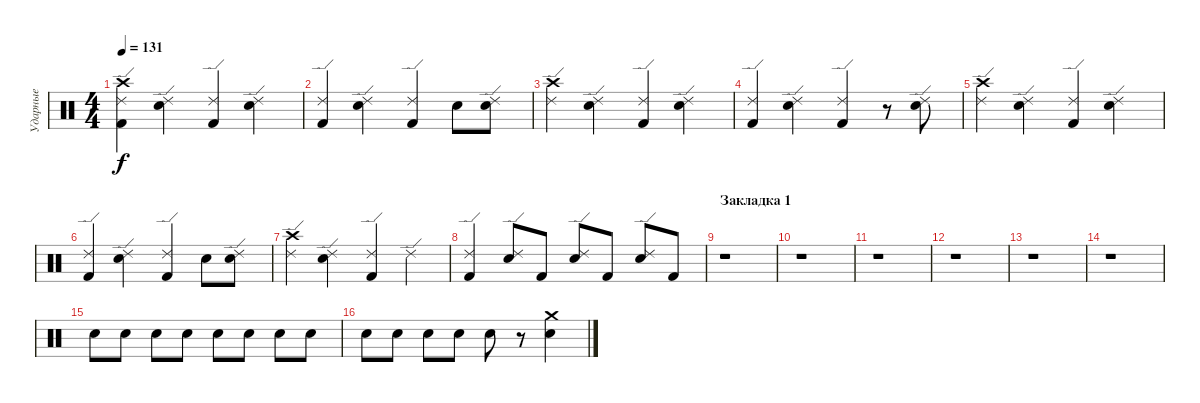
\track ("Ударные" "Ударные") {instrument percussion}
\staff {score}
\articulation defaults
\ts (4 4)
\tempo 131
\clef neutral
\ks c
("Crash high (hit)" "Kick (hit) 2" "Ride (edge) 2").4{dy f} ("Electric Snare (hit)" "Ride (edge) 2").4 ("Kick (hit) 2" "Ride (edge) 2").4 ("Electric Snare (hit)" "Ride (edge) 2").4 |
("Kick (hit) 2" "Ride (edge) 2").4 ("Electric Snare (hit)" "Ride (edge) 2").4 ("Kick (hit) 2" "Ride (edge) 2").4 "Electric Snare (hit)".8 ("Electric Snare (hit)" "Ride (edge) 2").8 |
("Crash high (hit)" "Ride (edge) 2").4 ("Electric Snare (hit)" "Ride (edge) 2").4 ("Kick (hit) 2" "Ride (edge) 2").4 ("Electric Snare (hit)" "Ride (edge) 2").4 |
("Kick (hit) 2" "Ride (edge) 2").4 ("Electric Snare (hit)" "Ride (edge) 2").4 ("Kick (hit) 2" "Ride (edge) 2").4 r.8 ("Electric Snare (hit)" "Ride (edge) 2").8 |
("Crash high (hit)" "Ride (edge) 2").4 ("Electric Snare (hit)" "Ride (edge) 2").4 ("Kick (hit) 2" "Ride (edge) 2").4 ("Electric Snare (hit)" "Ride (edge) 2").4 |
("Kick (hit) 2" "Ride (edge) 2").4 ("Electric Snare (hit)" "Ride (edge) 2").4 ("Kick (hit) 2" "Ride (edge) 2").4 "Electric Snare (hit)".8 ("Electric Snare (hit)" "Ride (edge) 2").8 |
("Crash high (hit)" "Ride (edge) 2").4 ("Electric Snare (hit)" "Ride (edge) 2").4 ("Kick (hit) 2" "Ride (edge) 2").4 "Ride (edge) 2".4 |
("Kick (hit) 2" "Ride (edge) 2").4 ("Electric Snare (hit)" "Ride (edge) 2").8 "Kick (hit) 2".8 ("Electric Snare (hit)" "Ride (edge) 2").8 "Kick (hit) 2".8 ("Electric Snare (hit)" "Ride (edge) 2").8 "Kick (hit) 2".8 |
\section ("" "Закладка 1")
r.1 |
r.1 |
r.1 |
r.1 |
r.1 |
r.1 |
"Electric Snare (hit)".8 "Electric Snare (hit)".8 "Electric Snare (hit)".8 "Electric Snare (hit)".8 "Electric Snare (hit)".8 "Electric Snare (hit)".8 "Electric Snare (hit)".8 "Electric Snare (hit)".8 |
"Electric Snare (hit)".8 "Electric Snare (hit)".8 "Electric Snare (hit)".8 "Electric Snare (hit)".8 "Electric Snare (hit)".8 r.8 ("Crash medium (hit)" "Electric Snare (hit)").4
